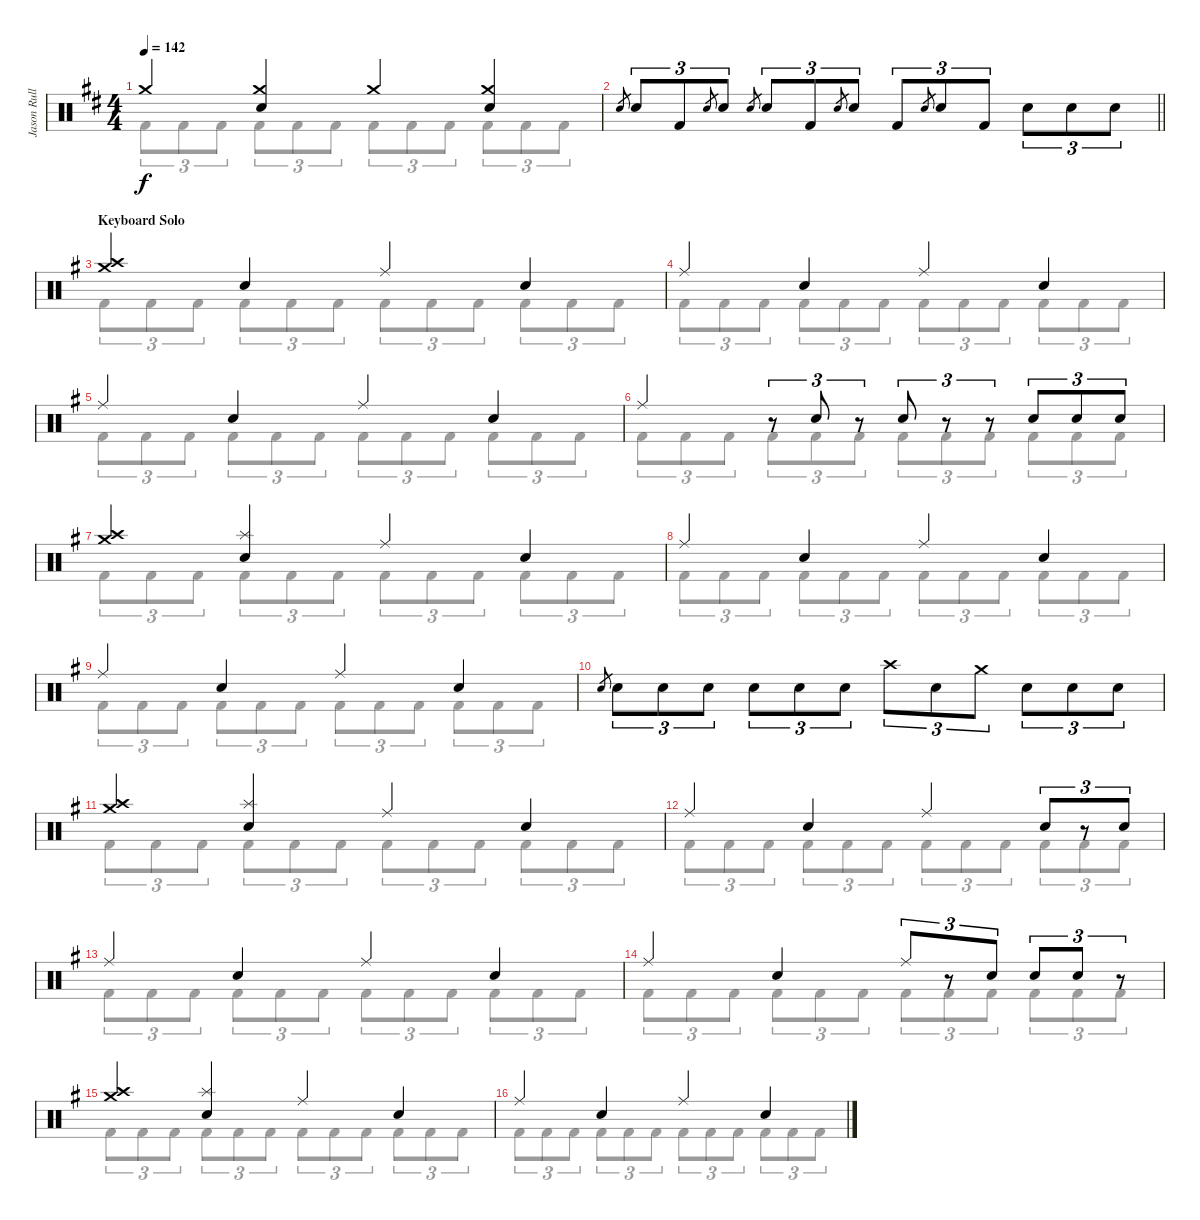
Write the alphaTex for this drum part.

\track ("Jason Rullo (drums)" "Jason Rull") {instrument percussion}
\staff {score}
\articulation defaults
\voice
\ts (4 4)
\tempo 142
\clef neutral
\ks bminor "Crash medium (hit)".4{dy f}
("Electric Snare (hit)" "Crash medium (hit)").4 "Crash medium (hit)".4 ("Electric Snare (hit)" "Crash medium (hit)").4 |
\barLineRight lightlight "Electric Snare (hit)".8{gr} "Electric Snare (hit)".8{tu (3 2)} "Kick (hit) 2".8{tu (3 2)} "Electric Snare (hit)".8{gr} "Electric Snare (hit)".8{tu (3 2)} "Electric Snare (hit)".8{gr} "Electric Snare (hit)".8{tu (3 2)} "Kick (hit) 2".8{tu (3 2)} "Electric Snare (hit)".8{gr} "Electric Snare (hit)".8{tu (3 2)} "Kick (hit) 2".8{tu (3 2)} "Electric Snare (hit)".8{gr} "Electric Snare (hit)".8{tu (3 2)} "Kick (hit) 2".8{tu (3 2)} "Electric Snare (hit)".8{tu (3 2)} "Electric Snare (hit)".8{tu (3 2)} "Electric Snare (hit)".8{tu (3 2)}
|
\section ("" "Keyboard Solo")
\ks eminor
("Crash high (hit)" "Crash medium (hit)").4 "Electric Snare (hit)".4 "Ride (middle)".4 "Electric Snare (hit)".4 |
"Ride (middle)".4 "Electric Snare (hit)".4 "Ride (middle)".4 "Electric Snare (hit)".4 |
"Ride (middle)".4 "Electric Snare (hit)".4 "Ride (middle)".4 "Electric Snare (hit)".4 |
"Ride (middle)".4 r.8{tu (3 2)} "Electric Snare (hit)".8{tu (3 2)} r.8{tu (3 2)} "Electric Snare (hit)".8{tu (3 2)} r.8{tu (3 2)} r.8{tu (3 2)} "Electric Snare (hit)".8{tu (3 2)} "Electric Snare (hit)".8{tu (3 2)} "Electric Snare (hit)".8{tu (3 2)} |
("Crash high (hit)" "Crash medium (hit)").4 ("Splash (hit)" "Electric Snare (hit)").4 "Ride (middle)".4 "Electric Snare (hit)".4 |
"Ride (middle)".4 "Electric Snare (hit)".4 "Ride (middle)".4 "Electric Snare (hit)".4 |
"Ride (middle)".4 "Electric Snare (hit)".4 "Ride (middle)".4 "Electric Snare (hit)".4 |
"Electric Snare (hit)".8{gr} "Electric Snare (hit)".8{tu (3 2)} "Electric Snare (hit)".8{tu (3 2)} "Electric Snare (hit)".8{tu (3 2)} "Electric Snare (hit)".8{tu (3 2)} "Electric Snare (hit)".8{tu (3 2)} "Electric Snare (hit)".8{tu (3 2)} "Crash high (hit)".8{tu (3 2)} "Electric Snare (hit)".8{tu (3 2)} "Crash medium (hit)".8{tu (3 2)} "Electric Snare (hit)".8{tu (3 2)} "Electric Snare (hit)".8{tu (3 2)} "Electric Snare (hit)".8{tu (3 2)} |
("Crash high (hit)" "Crash medium (hit)").4 ("Splash (hit)" "Electric Snare (hit)").4 "Ride (middle)".4 "Electric Snare (hit)".4 |
"Ride (middle)".4 "Electric Snare (hit)".4 "Ride (middle)".4 "Electric Snare (hit)".8{tu (3 2)} r.8{tu (3 2)} "Electric Snare (hit)".8{tu (3 2)} |
"Ride (middle)".4 "Electric Snare (hit)".4 "Ride (middle)".4 "Electric Snare (hit)".4 |
"Ride (middle)".4 "Electric Snare (hit)".4 "Ride (middle)".8{tu (3 2)} r.8{tu (3 2)} "Electric Snare (hit)".8{tu (3 2)} "Electric Snare (hit)".8{tu (3 2)} "Electric Snare (hit)".8{tu (3 2)} r.8{tu (3 2)} |
("Crash high (hit)" "Crash medium (hit)").4 ("Splash (hit)" "Electric Snare (hit)").4 "Ride (middle)".4 "Electric Snare (hit)".4 |
"Ride (middle)".4 "Electric Snare (hit)".4 "Ride (middle)".4 "Electric Snare (hit)".4
\voice
\clef neutral
\ottava regular
\simile none
\ks bminor "Kick (hit) 2".8{tu (3 2) dy f} "Kick (hit) 2".8{tu (3 2)} "Kick (hit) 2".8{tu (3 2)} "Kick (hit) 2".8{tu (3 2)} "Kick (hit) 2".8{tu (3 2)} "Kick (hit) 2".8{tu (3 2)} "Kick (hit) 2".8{tu (3 2)} "Kick (hit) 2".8{tu (3 2)} "Kick (hit) 2".8{tu (3 2)} "Kick (hit) 2".8{tu (3 2)} "Kick (hit) 2".8{tu (3 2)} "Kick (hit) 2".8{tu (3 2)}
|
\barLineRight lightlight
|
\ks eminor "Kick (hit) 2".8{tu (3 2)} "Kick (hit) 2".8{tu (3 2)} "Kick (hit) 2".8{tu (3 2)} "Kick (hit) 2".8{tu (3 2)} "Kick (hit) 2".8{tu (3 2)} "Kick (hit) 2".8{tu (3 2)} "Kick (hit) 2".8{tu (3 2)} "Kick (hit) 2".8{tu (3 2)} "Kick (hit) 2".8{tu (3 2)} "Kick (hit) 2".8{tu (3 2)} "Kick (hit) 2".8{tu (3 2)} "Kick (hit) 2".8{tu (3 2)}
|
"Kick (hit) 2".8{tu (3 2)} "Kick (hit) 2".8{tu (3 2)} "Kick (hit) 2".8{tu (3 2)} "Kick (hit) 2".8{tu (3 2)} "Kick (hit) 2".8{tu (3 2)} "Kick (hit) 2".8{tu (3 2)} "Kick (hit) 2".8{tu (3 2)} "Kick (hit) 2".8{tu (3 2)} "Kick (hit) 2".8{tu (3 2)} "Kick (hit) 2".8{tu (3 2)} "Kick (hit) 2".8{tu (3 2)} "Kick (hit) 2".8{tu (3 2)} |
"Kick (hit) 2".8{tu (3 2)} "Kick (hit) 2".8{tu (3 2)} "Kick (hit) 2".8{tu (3 2)} "Kick (hit) 2".8{tu (3 2)} "Kick (hit) 2".8{tu (3 2)} "Kick (hit) 2".8{tu (3 2)} "Kick (hit) 2".8{tu (3 2)} "Kick (hit) 2".8{tu (3 2)} "Kick (hit) 2".8{tu (3 2)} "Kick (hit) 2".8{tu (3 2)} "Kick (hit) 2".8{tu (3 2)} "Kick (hit) 2".8{tu (3 2)} |
"Kick (hit) 2".8{tu (3 2)} "Kick (hit) 2".8{tu (3 2)} "Kick (hit) 2".8{tu (3 2)} "Kick (hit) 2".8{tu (3 2)} "Kick (hit) 2".8{tu (3 2)} "Kick (hit) 2".8{tu (3 2)} "Kick (hit) 2".8{tu (3 2)} "Kick (hit) 2".8{tu (3 2)} "Kick (hit) 2".8{tu (3 2)} "Kick (hit) 2".8{tu (3 2)} "Kick (hit) 2".8{tu (3 2)} "Kick (hit) 2".8{tu (3 2)} |
"Kick (hit) 2".8{tu (3 2)} "Kick (hit) 2".8{tu (3 2)} "Kick (hit) 2".8{tu (3 2)} "Kick (hit) 2".8{tu (3 2)} "Kick (hit) 2".8{tu (3 2)} "Kick (hit) 2".8{tu (3 2)} "Kick (hit) 2".8{tu (3 2)} "Kick (hit) 2".8{tu (3 2)} "Kick (hit) 2".8{tu (3 2)} "Kick (hit) 2".8{tu (3 2)} "Kick (hit) 2".8{tu (3 2)} "Kick (hit) 2".8{tu (3 2)} |
"Kick (hit) 2".8{tu (3 2)} "Kick (hit) 2".8{tu (3 2)} "Kick (hit) 2".8{tu (3 2)} "Kick (hit) 2".8{tu (3 2)} "Kick (hit) 2".8{tu (3 2)} "Kick (hit) 2".8{tu (3 2)} "Kick (hit) 2".8{tu (3 2)} "Kick (hit) 2".8{tu (3 2)} "Kick (hit) 2".8{tu (3 2)} "Kick (hit) 2".8{tu (3 2)} "Kick (hit) 2".8{tu (3 2)} "Kick (hit) 2".8{tu (3 2)} |
"Kick (hit) 2".8{tu (3 2)} "Kick (hit) 2".8{tu (3 2)} "Kick (hit) 2".8{tu (3 2)} "Kick (hit) 2".8{tu (3 2)} "Kick (hit) 2".8{tu (3 2)} "Kick (hit) 2".8{tu (3 2)} "Kick (hit) 2".8{tu (3 2)} "Kick (hit) 2".8{tu (3 2)} "Kick (hit) 2".8{tu (3 2)} "Kick (hit) 2".8{tu (3 2)} "Kick (hit) 2".8{tu (3 2)} "Kick (hit) 2".8{tu (3 2)} |
|
"Kick (hit) 2".8{tu (3 2)} "Kick (hit) 2".8{tu (3 2)} "Kick (hit) 2".8{tu (3 2)} "Kick (hit) 2".8{tu (3 2)} "Kick (hit) 2".8{tu (3 2)} "Kick (hit) 2".8{tu (3 2)} "Kick (hit) 2".8{tu (3 2)} "Kick (hit) 2".8{tu (3 2)} "Kick (hit) 2".8{tu (3 2)} "Kick (hit) 2".8{tu (3 2)} "Kick (hit) 2".8{tu (3 2)} "Kick (hit) 2".8{tu (3 2)} |
"Kick (hit) 2".8{tu (3 2)} "Kick (hit) 2".8{tu (3 2)} "Kick (hit) 2".8{tu (3 2)} "Kick (hit) 2".8{tu (3 2)} "Kick (hit) 2".8{tu (3 2)} "Kick (hit) 2".8{tu (3 2)} "Kick (hit) 2".8{tu (3 2)} "Kick (hit) 2".8{tu (3 2)} "Kick (hit) 2".8{tu (3 2)} "Kick (hit) 2".8{tu (3 2)} "Kick (hit) 2".8{tu (3 2)} "Kick (hit) 2".8{tu (3 2)} |
"Kick (hit) 2".8{tu (3 2)} "Kick (hit) 2".8{tu (3 2)} "Kick (hit) 2".8{tu (3 2)} "Kick (hit) 2".8{tu (3 2)} "Kick (hit) 2".8{tu (3 2)} "Kick (hit) 2".8{tu (3 2)} "Kick (hit) 2".8{tu (3 2)} "Kick (hit) 2".8{tu (3 2)} "Kick (hit) 2".8{tu (3 2)} "Kick (hit) 2".8{tu (3 2)} "Kick (hit) 2".8{tu (3 2)} "Kick (hit) 2".8{tu (3 2)} |
"Kick (hit) 2".8{tu (3 2)} "Kick (hit) 2".8{tu (3 2)} "Kick (hit) 2".8{tu (3 2)} "Kick (hit) 2".8{tu (3 2)} "Kick (hit) 2".8{tu (3 2)} "Kick (hit) 2".8{tu (3 2)} "Kick (hit) 2".8{tu (3 2)} "Kick (hit) 2".8{tu (3 2)} "Kick (hit) 2".8{tu (3 2)} "Kick (hit) 2".8{tu (3 2)} "Kick (hit) 2".8{tu (3 2)} "Kick (hit) 2".8{tu (3 2)} |
"Kick (hit) 2".8{tu (3 2)} "Kick (hit) 2".8{tu (3 2)} "Kick (hit) 2".8{tu (3 2)} "Kick (hit) 2".8{tu (3 2)} "Kick (hit) 2".8{tu (3 2)} "Kick (hit) 2".8{tu (3 2)} "Kick (hit) 2".8{tu (3 2)} "Kick (hit) 2".8{tu (3 2)} "Kick (hit) 2".8{tu (3 2)} "Kick (hit) 2".8{tu (3 2)} "Kick (hit) 2".8{tu (3 2)} "Kick (hit) 2".8{tu (3 2)} |
"Kick (hit) 2".8{tu (3 2)} "Kick (hit) 2".8{tu (3 2)} "Kick (hit) 2".8{tu (3 2)} "Kick (hit) 2".8{tu (3 2)} "Kick (hit) 2".8{tu (3 2)} "Kick (hit) 2".8{tu (3 2)} "Kick (hit) 2".8{tu (3 2)} "Kick (hit) 2".8{tu (3 2)} "Kick (hit) 2".8{tu (3 2)} "Kick (hit) 2".8{tu (3 2)} "Kick (hit) 2".8{tu (3 2)} "Kick (hit) 2".8{tu (3 2)}
